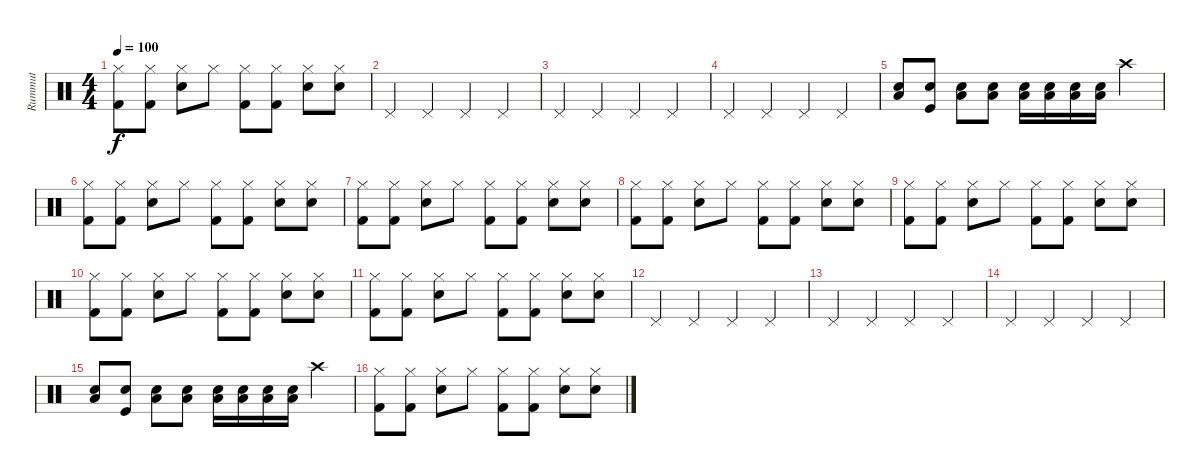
\track ("Rummut" "Rummut") {instrument percussion}
\staff {score}
\articulation defaults
\ts (4 4)
\tempo 100
\clef neutral
\ks c
("Hi-Hat (closed)" "Kick (hit) 2").8{dy f} ("Hi-Hat (closed)" "Kick (hit) 2").8 ("Hi-Hat (closed)" "Snare (hit) 2").8 "Hi-Hat (closed)".8 ("Hi-Hat (closed)" "Kick (hit) 2").8 ("Hi-Hat (closed)" "Kick (hit) 2").8 ("Hi-Hat (closed)" "Snare (hit) 2").8 ("Hi-Hat (closed)" "Snare (hit) 2").8 |
"Pedal Hi-Hat (hit)".4 "Pedal Hi-Hat (hit)".4 "Pedal Hi-Hat (hit)".4 "Pedal Hi-Hat (hit)".4 |
"Pedal Hi-Hat (hit)".4 "Pedal Hi-Hat (hit)".4 "Pedal Hi-Hat (hit)".4 "Pedal Hi-Hat (hit)".4 |
"Pedal Hi-Hat (hit)".4 "Pedal Hi-Hat (hit)".4 "Pedal Hi-Hat (hit)".4 "Pedal Hi-Hat (hit)".4 |
("Low Tom (hit)" "Snare (hit) 2").8 ("Snare (hit) 2" "Kick (hit)").8 ("Low Tom (hit)" "Snare (hit) 2").8 ("Low Tom (hit)" "Snare (hit) 2").8 ("Low Tom (hit)" "Snare (hit) 2").16 ("Low Tom (hit)" "Snare (hit) 2").16 ("Low Tom (hit)" "Snare (hit) 2").16 ("Low Tom (hit)" "Snare (hit) 2").16 "Crash high (hit)".4 |
("Hi-Hat (closed)" "Kick (hit) 2").8 ("Hi-Hat (closed)" "Kick (hit) 2").8 ("Hi-Hat (closed)" "Snare (hit) 2").8 "Hi-Hat (closed)".8 ("Hi-Hat (closed)" "Kick (hit) 2").8 ("Hi-Hat (closed)" "Kick (hit) 2").8 ("Hi-Hat (closed)" "Snare (hit) 2").8 ("Hi-Hat (closed)" "Snare (hit) 2").8 |
("Hi-Hat (closed)" "Kick (hit) 2").8 ("Hi-Hat (closed)" "Kick (hit) 2").8 ("Hi-Hat (closed)" "Snare (hit) 2").8 "Hi-Hat (closed)".8 ("Hi-Hat (closed)" "Kick (hit) 2").8 ("Hi-Hat (closed)" "Kick (hit) 2").8 ("Hi-Hat (closed)" "Snare (hit) 2").8 ("Hi-Hat (closed)" "Snare (hit) 2").8 |
("Hi-Hat (closed)" "Kick (hit) 2").8 ("Hi-Hat (closed)" "Kick (hit) 2").8 ("Hi-Hat (closed)" "Snare (hit) 2").8 "Hi-Hat (closed)".8 ("Hi-Hat (closed)" "Kick (hit) 2").8 ("Hi-Hat (closed)" "Kick (hit) 2").8 ("Hi-Hat (closed)" "Snare (hit) 2").8 ("Hi-Hat (closed)" "Snare (hit) 2").8 |
("Hi-Hat (closed)" "Kick (hit) 2").8 ("Hi-Hat (closed)" "Kick (hit) 2").8 ("Hi-Hat (closed)" "Snare (hit) 2").8 "Hi-Hat (closed)".8 ("Hi-Hat (closed)" "Kick (hit) 2").8 ("Hi-Hat (closed)" "Kick (hit) 2").8 ("Hi-Hat (closed)" "Snare (hit) 2").8 ("Hi-Hat (closed)" "Snare (hit) 2").8 |
("Hi-Hat (closed)" "Kick (hit) 2").8 ("Hi-Hat (closed)" "Kick (hit) 2").8 ("Hi-Hat (closed)" "Snare (hit) 2").8 "Hi-Hat (closed)".8 ("Hi-Hat (closed)" "Kick (hit) 2").8 ("Hi-Hat (closed)" "Kick (hit) 2").8 ("Hi-Hat (closed)" "Snare (hit) 2").8 ("Hi-Hat (closed)" "Snare (hit) 2").8 |
("Hi-Hat (closed)" "Kick (hit) 2").8 ("Hi-Hat (closed)" "Kick (hit) 2").8 ("Hi-Hat (closed)" "Snare (hit) 2").8 "Hi-Hat (closed)".8 ("Hi-Hat (closed)" "Kick (hit) 2").8 ("Hi-Hat (closed)" "Kick (hit) 2").8 ("Hi-Hat (closed)" "Snare (hit) 2").8 ("Hi-Hat (closed)" "Snare (hit) 2").8 |
"Pedal Hi-Hat (hit)".4 "Pedal Hi-Hat (hit)".4 "Pedal Hi-Hat (hit)".4 "Pedal Hi-Hat (hit)".4 |
"Pedal Hi-Hat (hit)".4 "Pedal Hi-Hat (hit)".4 "Pedal Hi-Hat (hit)".4 "Pedal Hi-Hat (hit)".4 |
"Pedal Hi-Hat (hit)".4 "Pedal Hi-Hat (hit)".4 "Pedal Hi-Hat (hit)".4 "Pedal Hi-Hat (hit)".4 |
("Low Tom (hit)" "Snare (hit) 2").8 ("Snare (hit) 2" "Kick (hit)").8 ("Low Tom (hit)" "Snare (hit) 2").8 ("Low Tom (hit)" "Snare (hit) 2").8 ("Low Tom (hit)" "Snare (hit) 2").16 ("Low Tom (hit)" "Snare (hit) 2").16 ("Low Tom (hit)" "Snare (hit) 2").16 ("Low Tom (hit)" "Snare (hit) 2").16 "Crash high (hit)".4 |
("Hi-Hat (closed)" "Kick (hit) 2").8 ("Hi-Hat (closed)" "Kick (hit) 2").8 ("Hi-Hat (closed)" "Snare (hit) 2").8 "Hi-Hat (closed)".8 ("Hi-Hat (closed)" "Kick (hit) 2").8 ("Hi-Hat (closed)" "Kick (hit) 2").8 ("Hi-Hat (closed)" "Snare (hit) 2").8 ("Hi-Hat (closed)" "Snare (hit) 2").8
